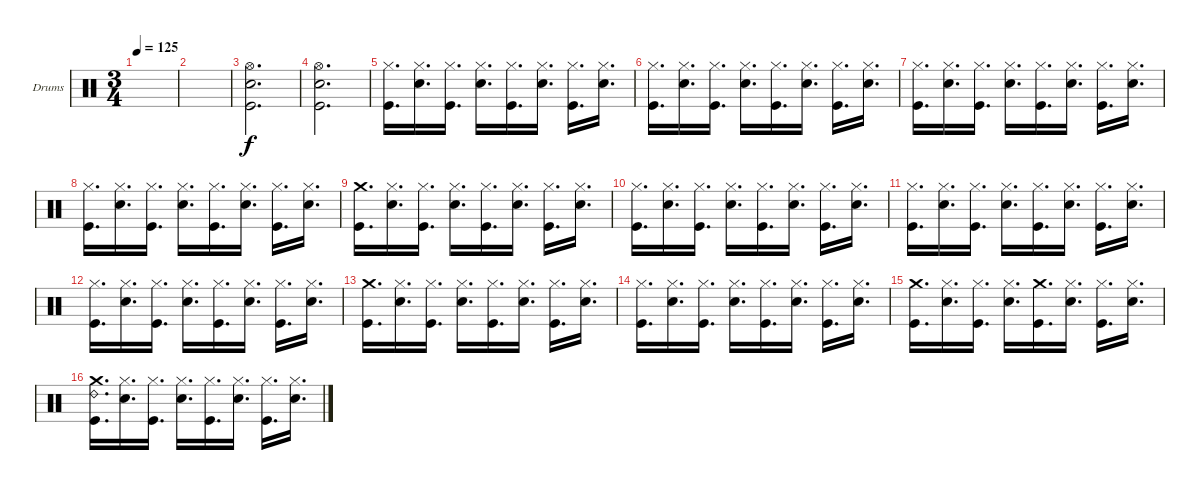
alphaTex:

\defaultSystemsLayout 4
\bracketExtendMode groupsimilarinstruments
\firstSystemTrackNameOrientation horizontal
\otherSystemsTrackNameOrientation horizontal
\track ("Drumkit" "Drums") {instrument percussion}
\staff {score}
\articulation defaults
\ts (3 4)
\tempo 125
\clef neutral
\ks c
|
|
("Kick (hit)" "Snare (hit) 2" "Hi-Hat (open)").2{d} |
("Kick (hit)" "Snare (hit) 2" "Hi-Hat (open)").2{d} |
("Kick (hit)" "Hi-Hat (closed)").16{d} ("Snare (hit) 2" "Hi-Hat (closed)").16{d} ("Kick (hit)" "Hi-Hat (closed)").16{d} ("Snare (hit) 2" "Hi-Hat (closed)").16{d} ("Kick (hit)" "Hi-Hat (closed)").16{d} ("Snare (hit) 2" "Hi-Hat (closed)").16{d} ("Kick (hit)" "Hi-Hat (closed)").16{d} ("Snare (hit) 2" "Hi-Hat (closed)").16{d} |
("Kick (hit)" "Hi-Hat (closed)").16{d} ("Snare (hit) 2" "Hi-Hat (closed)").16{d} ("Kick (hit)" "Hi-Hat (closed)").16{d} ("Snare (hit) 2" "Hi-Hat (closed)").16{d} ("Kick (hit)" "Hi-Hat (closed)").16{d} ("Snare (hit) 2" "Hi-Hat (closed)").16{d} ("Kick (hit)" "Hi-Hat (closed)").16{d} ("Snare (hit) 2" "Hi-Hat (closed)").16{d} |
("Kick (hit)" "Hi-Hat (closed)").16{d} ("Snare (hit) 2" "Hi-Hat (closed)").16{d} ("Kick (hit)" "Hi-Hat (closed)").16{d} ("Snare (hit) 2" "Hi-Hat (closed)").16{d} ("Kick (hit)" "Hi-Hat (closed)").16{d} ("Snare (hit) 2" "Hi-Hat (closed)").16{d} ("Kick (hit)" "Hi-Hat (closed)").16{d} ("Snare (hit) 2" "Hi-Hat (closed)").16{d} |
("Kick (hit)" "Hi-Hat (closed)").16{d} ("Snare (hit) 2" "Hi-Hat (closed)").16{d} ("Kick (hit)" "Hi-Hat (closed)").16{d} ("Snare (hit) 2" "Hi-Hat (closed)").16{d} ("Kick (hit)" "Hi-Hat (closed)").16{d} ("Snare (hit) 2" "Hi-Hat (closed)").16{d} ("Kick (hit)" "Hi-Hat (closed)").16{d} ("Snare (hit) 2" "Hi-Hat (closed)").16{d} |
("Kick (hit)" "Crash medium (hit)").16{d} ("Snare (hit) 2" "Hi-Hat (closed)").16{d} ("Kick (hit)" "Hi-Hat (closed)").16{d} ("Snare (hit) 2" "Hi-Hat (closed)").16{d} ("Kick (hit)" "Hi-Hat (closed)").16{d} ("Snare (hit) 2" "Hi-Hat (closed)").16{d} ("Kick (hit)" "Hi-Hat (closed)").16{d} ("Snare (hit) 2" "Hi-Hat (closed)").16{d} |
("Kick (hit)" "Hi-Hat (closed)").16{d} ("Snare (hit) 2" "Hi-Hat (closed)").16{d} ("Kick (hit)" "Hi-Hat (closed)").16{d} ("Snare (hit) 2" "Hi-Hat (closed)").16{d} ("Kick (hit)" "Hi-Hat (closed)").16{d} ("Snare (hit) 2" "Hi-Hat (closed)").16{d} ("Kick (hit)" "Hi-Hat (closed)").16{d} ("Snare (hit) 2" "Hi-Hat (closed)").16{d} |
("Kick (hit)" "Hi-Hat (closed)").16{d} ("Snare (hit) 2" "Hi-Hat (closed)").16{d} ("Kick (hit)" "Hi-Hat (closed)").16{d} ("Snare (hit) 2" "Hi-Hat (closed)").16{d} ("Kick (hit)" "Hi-Hat (closed)").16{d} ("Snare (hit) 2" "Hi-Hat (closed)").16{d} ("Kick (hit)" "Hi-Hat (closed)").16{d} ("Snare (hit) 2" "Hi-Hat (closed)").16{d} |
("Kick (hit)" "Hi-Hat (closed)").16{d} ("Snare (hit) 2" "Hi-Hat (closed)").16{d} ("Kick (hit)" "Hi-Hat (closed)").16{d} ("Snare (hit) 2" "Hi-Hat (closed)").16{d} ("Kick (hit)" "Hi-Hat (closed)").16{d} ("Snare (hit) 2" "Hi-Hat (closed)").16{d} ("Kick (hit)" "Hi-Hat (closed)").16{d} ("Snare (hit) 2" "Hi-Hat (closed)").16{d} |
("Kick (hit)" "Crash medium (hit)").16{d} ("Snare (hit) 2" "Hi-Hat (closed)").16{d} ("Kick (hit)" "Hi-Hat (closed)").16{d} ("Snare (hit) 2" "Hi-Hat (closed)").16{d} ("Kick (hit)" "Hi-Hat (closed)").16{d} ("Snare (hit) 2" "Hi-Hat (closed)").16{d} ("Kick (hit)" "Hi-Hat (closed)").16{d} ("Snare (hit) 2" "Hi-Hat (closed)").16{d} |
("Kick (hit)" "Hi-Hat (closed)").16{d} ("Snare (hit) 2" "Hi-Hat (closed)").16{d} ("Kick (hit)" "Hi-Hat (closed)").16{d} ("Snare (hit) 2" "Hi-Hat (closed)").16{d} ("Kick (hit)" "Hi-Hat (closed)").16{d} ("Snare (hit) 2" "Hi-Hat (closed)").16{d} ("Kick (hit)" "Hi-Hat (closed)").16{d} ("Snare (hit) 2" "Hi-Hat (closed)").16{d} |
("Kick (hit)" "Crash medium (hit)").16{d} ("Snare (hit) 2" "Hi-Hat (closed)").16{d} ("Kick (hit)" "Hi-Hat (closed)").16{d} ("Snare (hit) 2" "Hi-Hat (closed)").16{d} ("Kick (hit)" "Crash medium (hit)").16{d} ("Snare (hit) 2" "Hi-Hat (closed)").16{d} ("Kick (hit)" "Hi-Hat (closed)").16{d} ("Snare (hit) 2" "Hi-Hat (closed)").16{d} |
("Kick (hit)" "Crash medium (hit)" "Ride (bell) 2").16{d} ("Snare (hit) 2" "Hi-Hat (closed)").16{d} ("Kick (hit)" "Hi-Hat (closed)").16{d} ("Snare (hit) 2" "Hi-Hat (closed)").16{d} ("Kick (hit)" "Hi-Hat (closed)").16{d} ("Snare (hit) 2" "Hi-Hat (closed)").16{d} ("Kick (hit)" "Hi-Hat (closed)").16{d} ("Snare (hit) 2" "Hi-Hat (closed)").16{d}
